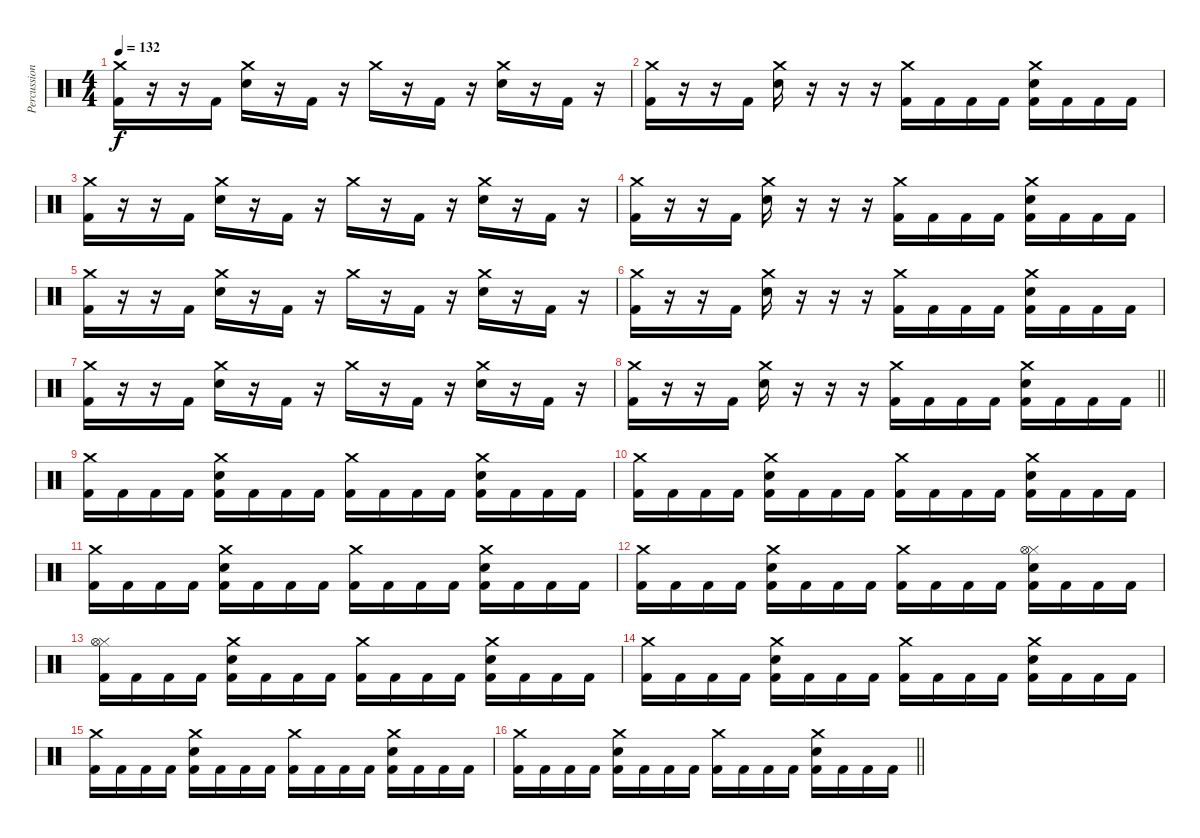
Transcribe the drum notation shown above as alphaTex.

\track ("Percussion" "Percussion") {instrument percussion}
\staff {score}
\articulation defaults
\ts (4 4)
\tempo 132
\clef neutral
\ks c
("Crash medium (hit)" "Kick (hit) 2").16{dy f} r.16 r.16 "Kick (hit) 2".16 ("Crash medium (hit)" "Snare (hit) 2").16 r.16 "Kick (hit) 2".16 r.16 "Crash medium (hit)".16 r.16 "Kick (hit) 2".16 r.16 ("Crash medium (hit)" "Snare (hit) 2").16 r.16 "Kick (hit) 2".16 r.16 |
("Crash medium (hit)" "Kick (hit) 2").16 r.16 r.16 "Kick (hit) 2".16 ("Crash medium (hit)" "Snare (hit) 2").16 r.16 r.16 r.16 ("Crash medium (hit)" "Kick (hit) 2").16 "Kick (hit) 2".16 "Kick (hit) 2".16 "Kick (hit) 2".16 ("Crash medium (hit)" "Snare (hit) 2" "Kick (hit) 2").16 "Kick (hit) 2".16 "Kick (hit) 2".16 "Kick (hit) 2".16 |
("Crash medium (hit)" "Kick (hit) 2").16 r.16 r.16 "Kick (hit) 2".16 ("Crash medium (hit)" "Snare (hit) 2").16 r.16 "Kick (hit) 2".16 r.16 "Crash medium (hit)".16 r.16 "Kick (hit) 2".16 r.16 ("Crash medium (hit)" "Snare (hit) 2").16 r.16 "Kick (hit) 2".16 r.16 |
("Crash medium (hit)" "Kick (hit) 2").16 r.16 r.16 "Kick (hit) 2".16 ("Crash medium (hit)" "Snare (hit) 2").16 r.16 r.16 r.16 ("Crash medium (hit)" "Kick (hit) 2").16 "Kick (hit) 2".16 "Kick (hit) 2".16 "Kick (hit) 2".16 ("Crash medium (hit)" "Snare (hit) 2" "Kick (hit) 2").16 "Kick (hit) 2".16 "Kick (hit) 2".16 "Kick (hit) 2".16 |
("Crash medium (hit)" "Kick (hit) 2").16 r.16 r.16 "Kick (hit) 2".16 ("Crash medium (hit)" "Snare (hit) 2").16 r.16 "Kick (hit) 2".16 r.16 "Crash medium (hit)".16 r.16 "Kick (hit) 2".16 r.16 ("Crash medium (hit)" "Snare (hit) 2").16 r.16 "Kick (hit) 2".16 r.16 |
("Crash medium (hit)" "Kick (hit) 2").16 r.16 r.16 "Kick (hit) 2".16 ("Crash medium (hit)" "Snare (hit) 2").16 r.16 r.16 r.16 ("Crash medium (hit)" "Kick (hit) 2").16 "Kick (hit) 2".16 "Kick (hit) 2".16 "Kick (hit) 2".16 ("Crash medium (hit)" "Snare (hit) 2" "Kick (hit) 2").16 "Kick (hit) 2".16 "Kick (hit) 2".16 "Kick (hit) 2".16 |
("Crash medium (hit)" "Kick (hit) 2").16 r.16 r.16 "Kick (hit) 2".16 ("Crash medium (hit)" "Snare (hit) 2").16 r.16 "Kick (hit) 2".16 r.16 "Crash medium (hit)".16 r.16 "Kick (hit) 2".16 r.16 ("Crash medium (hit)" "Snare (hit) 2").16 r.16 "Kick (hit) 2".16 r.16 |
\barLineRight lightlight
("Crash medium (hit)" "Kick (hit) 2").16 r.16 r.16 "Kick (hit) 2".16 ("Crash medium (hit)" "Snare (hit) 2").16 r.16 r.16 r.16 ("Crash medium (hit)" "Kick (hit) 2").16 "Kick (hit) 2".16 "Kick (hit) 2".16 "Kick (hit) 2".16 ("Crash medium (hit)" "Snare (hit) 2" "Kick (hit) 2").16 "Kick (hit) 2".16 "Kick (hit) 2".16 "Kick (hit) 2".16 |
("Crash medium (hit)" "Kick (hit) 2").16 "Kick (hit) 2".16 "Kick (hit) 2".16 "Kick (hit) 2".16 ("Crash medium (hit)" "Snare (hit) 2" "Kick (hit) 2").16 "Kick (hit) 2".16 "Kick (hit) 2".16 "Kick (hit) 2".16 ("Crash medium (hit)" "Kick (hit) 2").16 "Kick (hit) 2".16 "Kick (hit) 2".16 "Kick (hit) 2".16 ("Crash medium (hit)" "Snare (hit) 2" "Kick (hit) 2").16 "Kick (hit) 2".16 "Kick (hit) 2".16 "Kick (hit) 2".16 |
("Crash medium (hit)" "Kick (hit) 2").16 "Kick (hit) 2".16 "Kick (hit) 2".16 "Kick (hit) 2".16 ("Crash medium (hit)" "Snare (hit) 2" "Kick (hit) 2").16 "Kick (hit) 2".16 "Kick (hit) 2".16 "Kick (hit) 2".16 ("Crash medium (hit)" "Kick (hit) 2").16 "Kick (hit) 2".16 "Kick (hit) 2".16 "Kick (hit) 2".16 ("Crash medium (hit)" "Snare (hit) 2" "Kick (hit) 2").16 "Kick (hit) 2".16 "Kick (hit) 2".16 "Kick (hit) 2".16 |
("Crash medium (hit)" "Kick (hit) 2").16 "Kick (hit) 2".16 "Kick (hit) 2".16 "Kick (hit) 2".16 ("Crash medium (hit)" "Snare (hit) 2" "Kick (hit) 2").16 "Kick (hit) 2".16 "Kick (hit) 2".16 "Kick (hit) 2".16 ("Crash medium (hit)" "Kick (hit) 2").16 "Kick (hit) 2".16 "Kick (hit) 2".16 "Kick (hit) 2".16 ("Crash medium (hit)" "Snare (hit) 2" "Kick (hit) 2").16 "Kick (hit) 2".16 "Kick (hit) 2".16 "Kick (hit) 2".16 |
("Crash medium (hit)" "Kick (hit) 2").16 "Kick (hit) 2".16 "Kick (hit) 2".16 "Kick (hit) 2".16 ("Crash medium (hit)" "Snare (hit) 2" "Kick (hit) 2").16 "Kick (hit) 2".16 "Kick (hit) 2".16 "Kick (hit) 2".16 ("Crash medium (hit)" "Kick (hit) 2").16 "Kick (hit) 2".16 "Kick (hit) 2".16 "Kick (hit) 2".16 ("Hi-Hat (closed)" "Snare (hit) 2" "Kick (hit) 2" "Hi-Hat (open)").16 "Kick (hit) 2".16 "Kick (hit) 2".16 "Kick (hit) 2".16 |
("Hi-Hat (closed)" "Kick (hit) 2" "Hi-Hat (open)").16 "Kick (hit) 2".16 "Kick (hit) 2".16 "Kick (hit) 2".16 ("Crash medium (hit)" "Snare (hit) 2" "Kick (hit) 2").16 "Kick (hit) 2".16 "Kick (hit) 2".16 "Kick (hit) 2".16 ("Crash medium (hit)" "Kick (hit) 2").16 "Kick (hit) 2".16 "Kick (hit) 2".16 "Kick (hit) 2".16 ("Crash medium (hit)" "Snare (hit) 2" "Kick (hit) 2").16 "Kick (hit) 2".16 "Kick (hit) 2".16 "Kick (hit) 2".16 |
("Crash medium (hit)" "Kick (hit) 2").16 "Kick (hit) 2".16 "Kick (hit) 2".16 "Kick (hit) 2".16 ("Crash medium (hit)" "Snare (hit) 2" "Kick (hit) 2").16 "Kick (hit) 2".16 "Kick (hit) 2".16 "Kick (hit) 2".16 ("Crash medium (hit)" "Kick (hit) 2").16 "Kick (hit) 2".16 "Kick (hit) 2".16 "Kick (hit) 2".16 ("Crash medium (hit)" "Snare (hit) 2" "Kick (hit) 2").16 "Kick (hit) 2".16 "Kick (hit) 2".16 "Kick (hit) 2".16 |
("Crash medium (hit)" "Kick (hit) 2").16 "Kick (hit) 2".16 "Kick (hit) 2".16 "Kick (hit) 2".16 ("Crash medium (hit)" "Snare (hit) 2" "Kick (hit) 2").16 "Kick (hit) 2".16 "Kick (hit) 2".16 "Kick (hit) 2".16 ("Crash medium (hit)" "Kick (hit) 2").16 "Kick (hit) 2".16 "Kick (hit) 2".16 "Kick (hit) 2".16 ("Crash medium (hit)" "Snare (hit) 2" "Kick (hit) 2").16 "Kick (hit) 2".16 "Kick (hit) 2".16 "Kick (hit) 2".16 |
\barLineRight lightlight
("Crash medium (hit)" "Kick (hit) 2").16 "Kick (hit) 2".16 "Kick (hit) 2".16 "Kick (hit) 2".16 ("Crash medium (hit)" "Snare (hit) 2" "Kick (hit) 2").16 "Kick (hit) 2".16 "Kick (hit) 2".16 "Kick (hit) 2".16 ("Crash medium (hit)" "Kick (hit) 2").16 "Kick (hit) 2".16 "Kick (hit) 2".16 "Kick (hit) 2".16 ("Crash medium (hit)" "Snare (hit) 2" "Kick (hit) 2").16 "Kick (hit) 2".16 "Kick (hit) 2".16 "Kick (hit) 2".16
